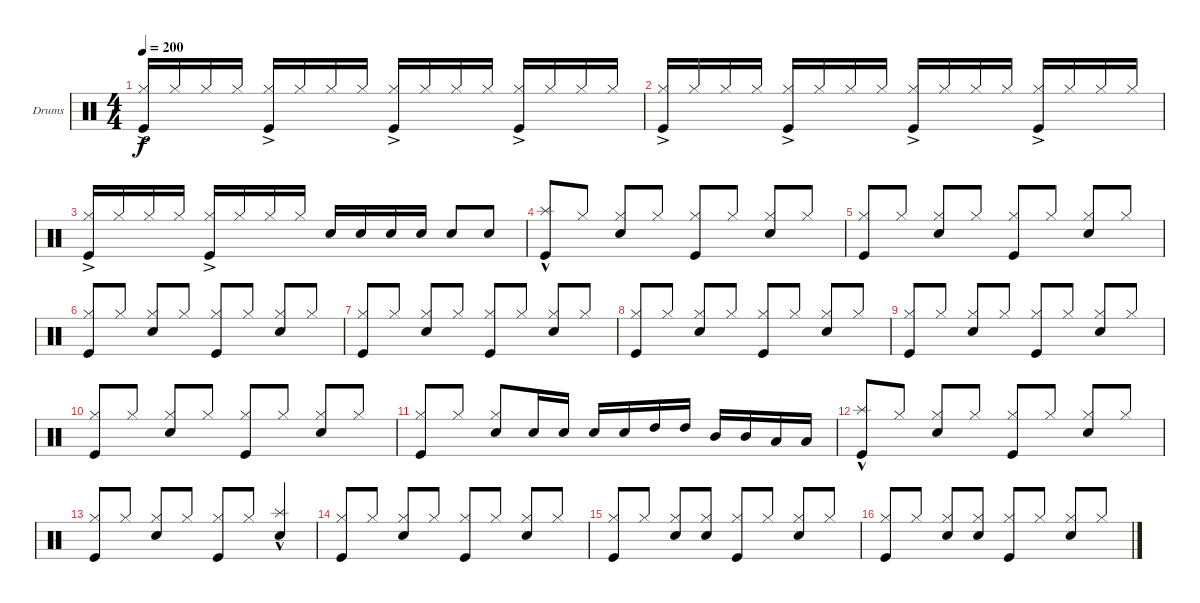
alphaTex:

\defaultSystemsLayout 4
\bracketExtendMode groupsimilarinstruments
\firstSystemTrackNameOrientation horizontal
\otherSystemsTrackNameOrientation horizontal
\track ("Drumkit" "Drums") {instrument percussion}
\staff {score}
\articulation defaults
\ts (4 4)
\tempo 200
\clef neutral
\ks c
("Hi-Hat (closed)"{ac} "Kick (hit)").16{dy f beam invert} "Hi-Hat (closed)".16 "Hi-Hat (closed)".16 "Hi-Hat (closed)".16 ("Hi-Hat (closed)"{ac} "Kick (hit)").16{beam invert} "Hi-Hat (closed)".16 "Hi-Hat (closed)".16 "Hi-Hat (closed)".16 ("Hi-Hat (closed)"{ac} "Kick (hit)").16{beam invert} "Hi-Hat (closed)".16 "Hi-Hat (closed)".16 "Hi-Hat (closed)".16 ("Hi-Hat (closed)"{ac} "Kick (hit)").16{beam invert} "Hi-Hat (closed)".16 "Hi-Hat (closed)".16 "Hi-Hat (closed)".16 |
("Hi-Hat (closed)"{ac} "Kick (hit)").16{beam invert} "Hi-Hat (closed)".16 "Hi-Hat (closed)".16 "Hi-Hat (closed)".16 ("Hi-Hat (closed)"{ac} "Kick (hit)").16{beam invert} "Hi-Hat (closed)".16 "Hi-Hat (closed)".16 "Hi-Hat (closed)".16 ("Hi-Hat (closed)"{ac} "Kick (hit)").16{beam invert} "Hi-Hat (closed)".16 "Hi-Hat (closed)".16 "Hi-Hat (closed)".16 ("Hi-Hat (closed)"{ac} "Kick (hit)").16{beam invert} "Hi-Hat (closed)".16 "Hi-Hat (closed)".16 "Hi-Hat (closed)".16 |
("Hi-Hat (closed)"{ac} "Kick (hit)").16{beam invert} "Hi-Hat (closed)".16 "Hi-Hat (closed)".16 "Hi-Hat (closed)".16 ("Hi-Hat (closed)"{ac} "Kick (hit)").16{beam invert} "Hi-Hat (closed)".16 "Hi-Hat (closed)".16 "Hi-Hat (closed)".16 "Snare (hit) 2".16{beam invert} "Snare (hit) 2".16 "Snare (hit) 2".16 "Snare (hit) 2".16 "Snare (hit) 2".8{beam invert} "Snare (hit) 2".8 |
("Kick (hit)" "Splash (hit)"{hac}).8 "Hi-Hat (closed)".8 ("Hi-Hat (closed)" "Snare (hit) 2").8{beam invert} "Hi-Hat (closed)".8 ("Hi-Hat (closed)" "Kick (hit)").8{beam invert} "Hi-Hat (closed)".8 ("Hi-Hat (closed)" "Snare (hit) 2").8{beam invert} "Hi-Hat (closed)".8 |
("Hi-Hat (closed)" "Kick (hit)").8{beam invert} "Hi-Hat (closed)".8 ("Hi-Hat (closed)" "Snare (hit) 2").8{beam invert} "Hi-Hat (closed)".8 ("Hi-Hat (closed)" "Kick (hit)").8{beam invert} "Hi-Hat (closed)".8 ("Hi-Hat (closed)" "Snare (hit) 2").8{beam invert} "Hi-Hat (closed)".8 |
("Hi-Hat (closed)" "Kick (hit)").8{beam invert} "Hi-Hat (closed)".8 ("Hi-Hat (closed)" "Snare (hit) 2").8{beam invert} "Hi-Hat (closed)".8 ("Hi-Hat (closed)" "Kick (hit)").8{beam invert} "Hi-Hat (closed)".8 ("Hi-Hat (closed)" "Snare (hit) 2").8{beam invert} "Hi-Hat (closed)".8 |
("Hi-Hat (closed)" "Kick (hit)").8{beam invert} "Hi-Hat (closed)".8 ("Hi-Hat (closed)" "Snare (hit) 2").8{beam invert} "Hi-Hat (closed)".8 ("Hi-Hat (closed)" "Kick (hit)").8{beam invert} "Hi-Hat (closed)".8 ("Hi-Hat (closed)" "Snare (hit) 2").8{beam invert} "Hi-Hat (closed)".8 |
("Hi-Hat (closed)" "Kick (hit)").8{beam invert} "Hi-Hat (closed)".8 ("Hi-Hat (closed)" "Snare (hit) 2").8{beam invert} "Hi-Hat (closed)".8 ("Hi-Hat (closed)" "Kick (hit)").8{beam invert} "Hi-Hat (closed)".8 ("Hi-Hat (closed)" "Snare (hit) 2").8{beam invert} "Hi-Hat (closed)".8 |
("Hi-Hat (closed)" "Kick (hit)").8{beam invert} "Hi-Hat (closed)".8 ("Hi-Hat (closed)" "Snare (hit) 2").8{beam invert} "Hi-Hat (closed)".8 ("Hi-Hat (closed)" "Kick (hit)").8{beam invert} "Hi-Hat (closed)".8 ("Hi-Hat (closed)" "Snare (hit) 2").8{beam invert} "Hi-Hat (closed)".8 |
("Hi-Hat (closed)" "Kick (hit)").8{beam invert} "Hi-Hat (closed)".8 ("Hi-Hat (closed)" "Snare (hit) 2").8{beam invert} "Hi-Hat (closed)".8 ("Hi-Hat (closed)" "Kick (hit)").8{beam invert} "Hi-Hat (closed)".8 ("Hi-Hat (closed)" "Snare (hit) 2").8{beam invert} "Hi-Hat (closed)".8 |
("Hi-Hat (closed)" "Kick (hit)").8{beam invert} "Hi-Hat (closed)".8 ("Hi-Hat (closed)" "Snare (hit) 2").8{beam invert} "Snare (hit) 2".16 "Snare (hit) 2".16 "Snare (hit) 2".16{beam invert} "Snare (hit) 2".16 "High Tom (hit)".16 "High Tom (hit)".16 "Mid Tom (hit)".16 "Mid Tom (hit)".16 "Low Tom (hit)".16 "Low Tom (hit)".16 |
("Kick (hit)" "Splash (hit)"{hac}).8 "Hi-Hat (closed)".8 ("Hi-Hat (closed)" "Snare (hit) 2").8{beam invert} "Hi-Hat (closed)".8 ("Hi-Hat (closed)" "Kick (hit)").8{beam invert} "Hi-Hat (closed)".8 ("Hi-Hat (closed)" "Snare (hit) 2").8{beam invert} "Hi-Hat (closed)".8 |
("Hi-Hat (closed)" "Kick (hit)").8{beam invert} "Hi-Hat (closed)".8 ("Hi-Hat (closed)" "Snare (hit) 2").8{beam invert} "Hi-Hat (closed)".8 ("Hi-Hat (closed)" "Kick (hit)").8{beam invert} "Hi-Hat (closed)".8 ("Snare (hit) 2" "Splash (hit)"{hac}).4{beam invert} |
("Hi-Hat (closed)" "Kick (hit)").8{beam invert} "Hi-Hat (closed)".8 ("Hi-Hat (closed)" "Snare (hit) 2").8{beam invert} "Hi-Hat (closed)".8 ("Hi-Hat (closed)" "Kick (hit)").8{beam invert} "Hi-Hat (closed)".8 ("Hi-Hat (closed)" "Snare (hit) 2").8{beam invert} "Hi-Hat (closed)".8 |
("Hi-Hat (closed)" "Kick (hit)").8{beam invert} "Hi-Hat (closed)".8 ("Hi-Hat (closed)" "Snare (hit) 2").8{beam invert} ("Hi-Hat (closed)" "Snare (hit) 2").8 ("Hi-Hat (closed)" "Kick (hit)").8{beam invert} "Hi-Hat (closed)".8 ("Hi-Hat (closed)" "Snare (hit) 2").8{beam invert} "Hi-Hat (closed)".8 |
("Hi-Hat (closed)" "Kick (hit)").8{beam invert} "Hi-Hat (closed)".8 ("Hi-Hat (closed)" "Snare (hit) 2").8{beam invert} ("Hi-Hat (closed)" "Snare (hit) 2").8 ("Hi-Hat (closed)" "Kick (hit)").8{beam invert} "Hi-Hat (closed)".8 ("Hi-Hat (closed)" "Snare (hit) 2").8{beam invert} "Hi-Hat (closed)".8
